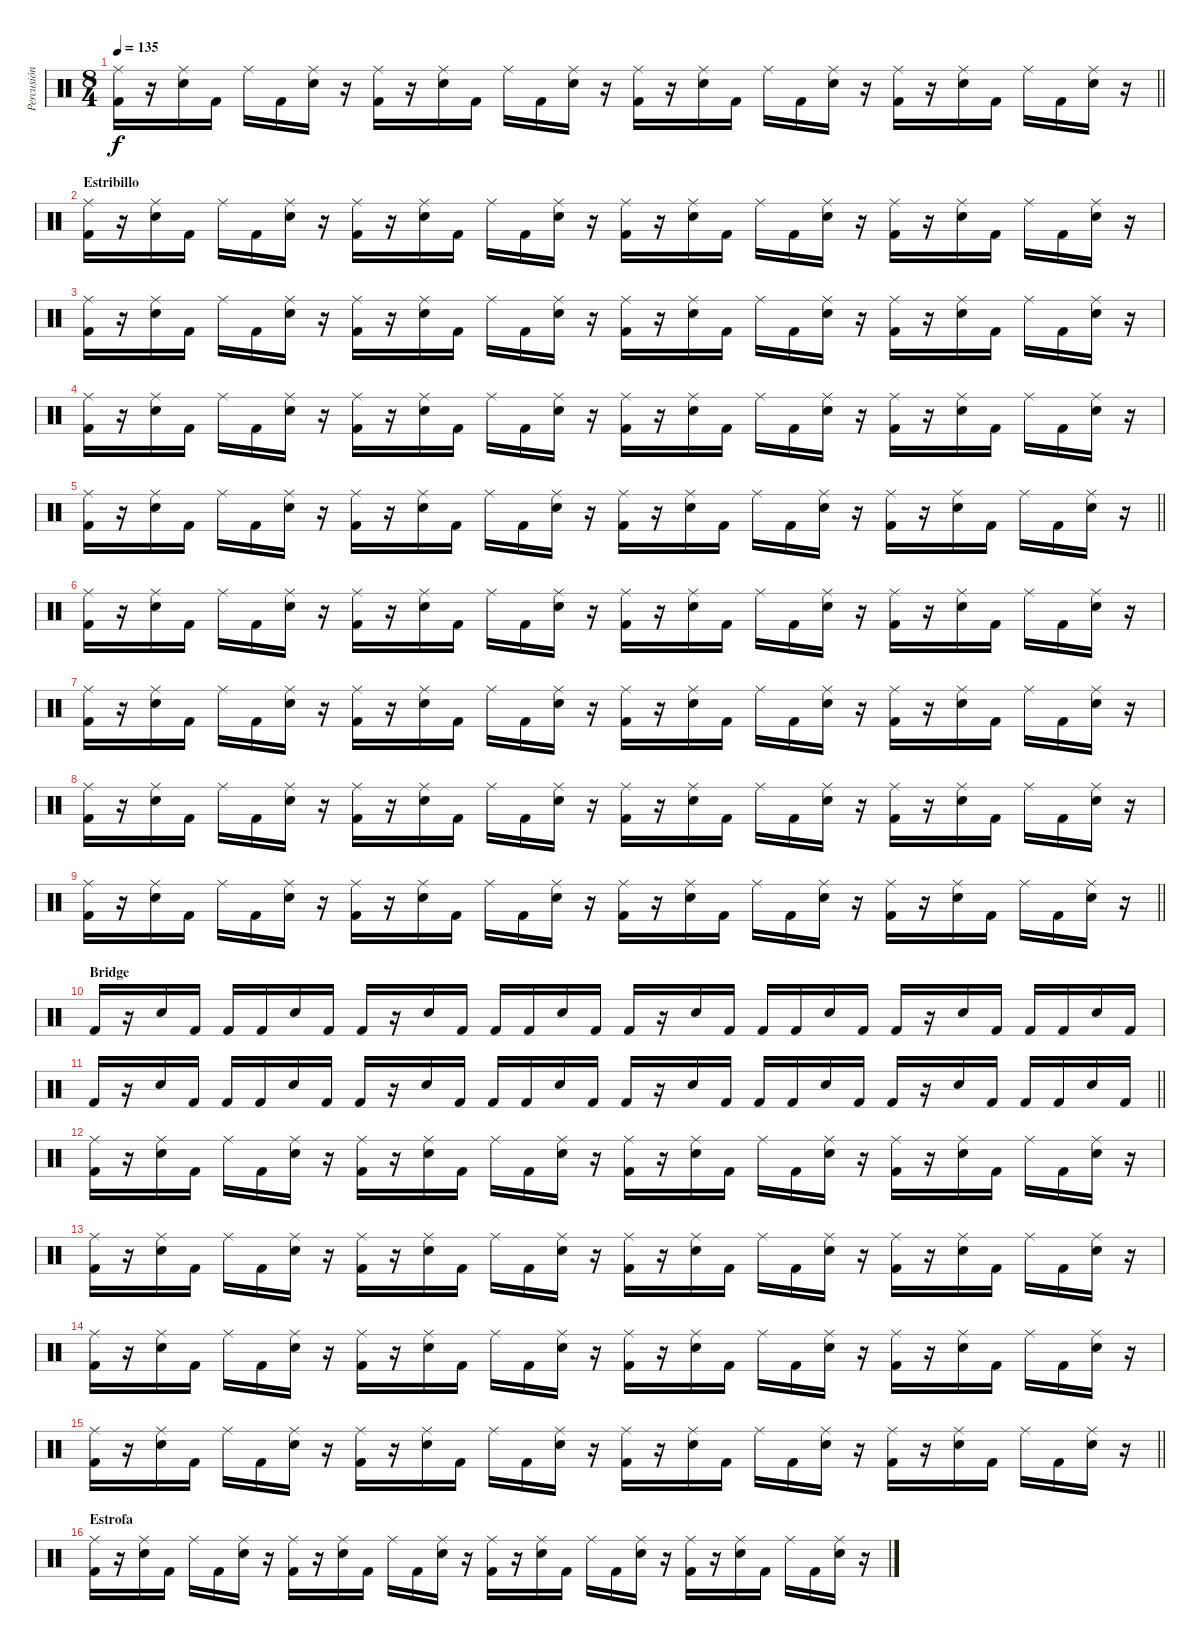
\track ("Percusión" "Percusión") {instrument percussion}
\staff {score}
\articulation defaults
\ts (8 4)
\tempo 135
\clef neutral
\barLineRight lightlight
\ks c
("Kick (hit) 2" "Ride (middle)").16{dy f} r.16 ("Snare (hit) 2" "Ride (middle)").16 "Kick (hit) 2".16 "Ride (middle)".16 "Kick (hit) 2".16 ("Snare (hit) 2" "Ride (middle)").16 r.16 ("Kick (hit) 2" "Ride (middle)").16 r.16 ("Snare (hit) 2" "Ride (middle)").16 "Kick (hit) 2".16 "Ride (middle)".16 "Kick (hit) 2".16 ("Snare (hit) 2" "Ride (middle)").16 r.16 ("Kick (hit) 2" "Ride (middle)").16 r.16 ("Snare (hit) 2" "Ride (middle)").16 "Kick (hit) 2".16 "Ride (middle)".16 "Kick (hit) 2".16 ("Snare (hit) 2" "Ride (middle)").16 r.16 ("Kick (hit) 2" "Ride (middle)").16 r.16 ("Snare (hit) 2" "Ride (middle)").16 "Kick (hit) 2".16 "Ride (middle)".16 "Kick (hit) 2".16 ("Snare (hit) 2" "Ride (middle)").16 r.16 |
\section ("" "Estribillo")
("Kick (hit) 2" "Ride (middle)").16 r.16 ("Snare (hit) 2" "Ride (middle)").16 "Kick (hit) 2".16 "Ride (middle)".16 "Kick (hit) 2".16 ("Snare (hit) 2" "Ride (middle)").16 r.16 ("Kick (hit) 2" "Ride (middle)").16 r.16 ("Snare (hit) 2" "Ride (middle)").16 "Kick (hit) 2".16 "Ride (middle)".16 "Kick (hit) 2".16 ("Snare (hit) 2" "Ride (middle)").16 r.16 ("Kick (hit) 2" "Ride (middle)").16 r.16 ("Snare (hit) 2" "Ride (middle)").16 "Kick (hit) 2".16 "Ride (middle)".16 "Kick (hit) 2".16 ("Snare (hit) 2" "Ride (middle)").16 r.16 ("Kick (hit) 2" "Ride (middle)").16 r.16 ("Snare (hit) 2" "Ride (middle)").16 "Kick (hit) 2".16 "Ride (middle)".16 "Kick (hit) 2".16 ("Snare (hit) 2" "Ride (middle)").16 r.16 |
("Kick (hit) 2" "Ride (middle)").16 r.16 ("Snare (hit) 2" "Ride (middle)").16 "Kick (hit) 2".16 "Ride (middle)".16 "Kick (hit) 2".16 ("Snare (hit) 2" "Ride (middle)").16 r.16 ("Kick (hit) 2" "Ride (middle)").16 r.16 ("Snare (hit) 2" "Ride (middle)").16 "Kick (hit) 2".16 "Ride (middle)".16 "Kick (hit) 2".16 ("Snare (hit) 2" "Ride (middle)").16 r.16 ("Kick (hit) 2" "Ride (middle)").16 r.16 ("Snare (hit) 2" "Ride (middle)").16 "Kick (hit) 2".16 "Ride (middle)".16 "Kick (hit) 2".16 ("Snare (hit) 2" "Ride (middle)").16 r.16 ("Kick (hit) 2" "Ride (middle)").16 r.16 ("Snare (hit) 2" "Ride (middle)").16 "Kick (hit) 2".16 "Ride (middle)".16 "Kick (hit) 2".16 ("Snare (hit) 2" "Ride (middle)").16 r.16 |
("Kick (hit) 2" "Ride (middle)").16 r.16 ("Snare (hit) 2" "Ride (middle)").16 "Kick (hit) 2".16 "Ride (middle)".16 "Kick (hit) 2".16 ("Snare (hit) 2" "Ride (middle)").16 r.16 ("Kick (hit) 2" "Ride (middle)").16 r.16 ("Snare (hit) 2" "Ride (middle)").16 "Kick (hit) 2".16 "Ride (middle)".16 "Kick (hit) 2".16 ("Snare (hit) 2" "Ride (middle)").16 r.16 ("Kick (hit) 2" "Ride (middle)").16 r.16 ("Snare (hit) 2" "Ride (middle)").16 "Kick (hit) 2".16 "Ride (middle)".16 "Kick (hit) 2".16 ("Snare (hit) 2" "Ride (middle)").16 r.16 ("Kick (hit) 2" "Ride (middle)").16 r.16 ("Snare (hit) 2" "Ride (middle)").16 "Kick (hit) 2".16 "Ride (middle)".16 "Kick (hit) 2".16 ("Snare (hit) 2" "Ride (middle)").16 r.16 |
\barLineRight lightlight
("Kick (hit) 2" "Ride (middle)").16 r.16 ("Snare (hit) 2" "Ride (middle)").16 "Kick (hit) 2".16 "Ride (middle)".16 "Kick (hit) 2".16 ("Snare (hit) 2" "Ride (middle)").16 r.16 ("Kick (hit) 2" "Ride (middle)").16 r.16 ("Snare (hit) 2" "Ride (middle)").16 "Kick (hit) 2".16 "Ride (middle)".16 "Kick (hit) 2".16 ("Snare (hit) 2" "Ride (middle)").16 r.16 ("Kick (hit) 2" "Ride (middle)").16 r.16 ("Snare (hit) 2" "Ride (middle)").16 "Kick (hit) 2".16 "Ride (middle)".16 "Kick (hit) 2".16 ("Snare (hit) 2" "Ride (middle)").16 r.16 ("Kick (hit) 2" "Ride (middle)").16 r.16 ("Snare (hit) 2" "Ride (middle)").16 "Kick (hit) 2".16 "Ride (middle)".16 "Kick (hit) 2".16 ("Snare (hit) 2" "Ride (middle)").16 r.16 |
\section ("" "")
("Kick (hit) 2" "Ride (middle)").16 r.16 ("Snare (hit) 2" "Ride (middle)").16 "Kick (hit) 2".16 "Ride (middle)".16 "Kick (hit) 2".16 ("Snare (hit) 2" "Ride (middle)").16 r.16 ("Kick (hit) 2" "Ride (middle)").16 r.16 ("Snare (hit) 2" "Ride (middle)").16 "Kick (hit) 2".16 "Ride (middle)".16 "Kick (hit) 2".16 ("Snare (hit) 2" "Ride (middle)").16 r.16 ("Kick (hit) 2" "Ride (middle)").16 r.16 ("Snare (hit) 2" "Ride (middle)").16 "Kick (hit) 2".16 "Ride (middle)".16 "Kick (hit) 2".16 ("Snare (hit) 2" "Ride (middle)").16 r.16 ("Kick (hit) 2" "Ride (middle)").16 r.16 ("Snare (hit) 2" "Ride (middle)").16 "Kick (hit) 2".16 "Ride (middle)".16 "Kick (hit) 2".16 ("Snare (hit) 2" "Ride (middle)").16 r.16 |
("Kick (hit) 2" "Ride (middle)").16 r.16 ("Snare (hit) 2" "Ride (middle)").16 "Kick (hit) 2".16 "Ride (middle)".16 "Kick (hit) 2".16 ("Snare (hit) 2" "Ride (middle)").16 r.16 ("Kick (hit) 2" "Ride (middle)").16 r.16 ("Snare (hit) 2" "Ride (middle)").16 "Kick (hit) 2".16 "Ride (middle)".16 "Kick (hit) 2".16 ("Snare (hit) 2" "Ride (middle)").16 r.16 ("Kick (hit) 2" "Ride (middle)").16 r.16 ("Snare (hit) 2" "Ride (middle)").16 "Kick (hit) 2".16 "Ride (middle)".16 "Kick (hit) 2".16 ("Snare (hit) 2" "Ride (middle)").16 r.16 ("Kick (hit) 2" "Ride (middle)").16 r.16 ("Snare (hit) 2" "Ride (middle)").16 "Kick (hit) 2".16 "Ride (middle)".16 "Kick (hit) 2".16 ("Snare (hit) 2" "Ride (middle)").16 r.16 |
("Kick (hit) 2" "Ride (middle)").16 r.16 ("Snare (hit) 2" "Ride (middle)").16 "Kick (hit) 2".16 "Ride (middle)".16 "Kick (hit) 2".16 ("Snare (hit) 2" "Ride (middle)").16 r.16 ("Kick (hit) 2" "Ride (middle)").16 r.16 ("Snare (hit) 2" "Ride (middle)").16 "Kick (hit) 2".16 "Ride (middle)".16 "Kick (hit) 2".16 ("Snare (hit) 2" "Ride (middle)").16 r.16 ("Kick (hit) 2" "Ride (middle)").16 r.16 ("Snare (hit) 2" "Ride (middle)").16 "Kick (hit) 2".16 "Ride (middle)".16 "Kick (hit) 2".16 ("Snare (hit) 2" "Ride (middle)").16 r.16 ("Kick (hit) 2" "Ride (middle)").16 r.16 ("Snare (hit) 2" "Ride (middle)").16 "Kick (hit) 2".16 "Ride (middle)".16 "Kick (hit) 2".16 ("Snare (hit) 2" "Ride (middle)").16 r.16 |
\barLineRight lightlight
("Kick (hit) 2" "Ride (middle)").16 r.16 ("Snare (hit) 2" "Ride (middle)").16 "Kick (hit) 2".16 "Ride (middle)".16 "Kick (hit) 2".16 ("Snare (hit) 2" "Ride (middle)").16 r.16 ("Kick (hit) 2" "Ride (middle)").16 r.16 ("Snare (hit) 2" "Ride (middle)").16 "Kick (hit) 2".16 "Ride (middle)".16 "Kick (hit) 2".16 ("Snare (hit) 2" "Ride (middle)").16 r.16 ("Kick (hit) 2" "Ride (middle)").16 r.16 ("Snare (hit) 2" "Ride (middle)").16 "Kick (hit) 2".16 "Ride (middle)".16 "Kick (hit) 2".16 ("Snare (hit) 2" "Ride (middle)").16 r.16 ("Kick (hit) 2" "Ride (middle)").16 r.16 ("Snare (hit) 2" "Ride (middle)").16 "Kick (hit) 2".16 "Ride (middle)".16 "Kick (hit) 2".16 ("Snare (hit) 2" "Ride (middle)").16 r.16 |
\section ("" "Bridge")
"Kick (hit) 2".16 r.16 "Snare (hit) 2".16 "Kick (hit) 2".16 "Kick (hit) 2".16 "Kick (hit) 2".16 "Snare (hit) 2".16 "Kick (hit) 2".16 "Kick (hit) 2".16 r.16 "Snare (hit) 2".16 "Kick (hit) 2".16 "Kick (hit) 2".16 "Kick (hit) 2".16 "Snare (hit) 2".16 "Kick (hit) 2".16 "Kick (hit) 2".16 r.16 "Snare (hit) 2".16 "Kick (hit) 2".16 "Kick (hit) 2".16 "Kick (hit) 2".16 "Snare (hit) 2".16 "Kick (hit) 2".16 "Kick (hit) 2".16 r.16 "Snare (hit) 2".16 "Kick (hit) 2".16 "Kick (hit) 2".16 "Kick (hit) 2".16 "Snare (hit) 2".16 "Kick (hit) 2".16 |
\barLineRight lightlight "Kick (hit) 2".16
r.16 "Snare (hit) 2".16 "Kick (hit) 2".16 "Kick (hit) 2".16 "Kick (hit) 2".16 "Snare (hit) 2".16 "Kick (hit) 2".16 "Kick (hit) 2".16 r.16 "Snare (hit) 2".16 "Kick (hit) 2".16 "Kick (hit) 2".16 "Kick (hit) 2".16 "Snare (hit) 2".16 "Kick (hit) 2".16 "Kick (hit) 2".16 r.16 "Snare (hit) 2".16 "Kick (hit) 2".16 "Kick (hit) 2".16 "Kick (hit) 2".16 "Snare (hit) 2".16 "Kick (hit) 2".16 "Kick (hit) 2".16 r.16 "Snare (hit) 2".16 "Kick (hit) 2".16 "Kick (hit) 2".16 "Kick (hit) 2".16 "Snare (hit) 2".16 "Kick (hit) 2".16 |
("Kick (hit) 2" "Ride (middle)").16 r.16 ("Snare (hit) 2" "Ride (middle)").16 "Kick (hit) 2".16 "Ride (middle)".16 "Kick (hit) 2".16 ("Snare (hit) 2" "Ride (middle)").16 r.16 ("Kick (hit) 2" "Ride (middle)").16 r.16 ("Snare (hit) 2" "Ride (middle)").16 "Kick (hit) 2".16 "Ride (middle)".16 "Kick (hit) 2".16 ("Snare (hit) 2" "Ride (middle)").16 r.16 ("Kick (hit) 2" "Ride (middle)").16 r.16 ("Snare (hit) 2" "Ride (middle)").16 "Kick (hit) 2".16 "Ride (middle)".16 "Kick (hit) 2".16 ("Snare (hit) 2" "Ride (middle)").16 r.16 ("Kick (hit) 2" "Ride (middle)").16 r.16 ("Snare (hit) 2" "Ride (middle)").16 "Kick (hit) 2".16 "Ride (middle)".16 "Kick (hit) 2".16 ("Snare (hit) 2" "Ride (middle)").16 r.16 |
("Kick (hit) 2" "Ride (middle)").16 r.16 ("Snare (hit) 2" "Ride (middle)").16 "Kick (hit) 2".16 "Ride (middle)".16 "Kick (hit) 2".16 ("Snare (hit) 2" "Ride (middle)").16 r.16 ("Kick (hit) 2" "Ride (middle)").16 r.16 ("Snare (hit) 2" "Ride (middle)").16 "Kick (hit) 2".16 "Ride (middle)".16 "Kick (hit) 2".16 ("Snare (hit) 2" "Ride (middle)").16 r.16 ("Kick (hit) 2" "Ride (middle)").16 r.16 ("Snare (hit) 2" "Ride (middle)").16 "Kick (hit) 2".16 "Ride (middle)".16 "Kick (hit) 2".16 ("Snare (hit) 2" "Ride (middle)").16 r.16 ("Kick (hit) 2" "Ride (middle)").16 r.16 ("Snare (hit) 2" "Ride (middle)").16 "Kick (hit) 2".16 "Ride (middle)".16 "Kick (hit) 2".16 ("Snare (hit) 2" "Ride (middle)").16 r.16 |
("Kick (hit) 2" "Ride (middle)").16 r.16 ("Snare (hit) 2" "Ride (middle)").16 "Kick (hit) 2".16 "Ride (middle)".16 "Kick (hit) 2".16 ("Snare (hit) 2" "Ride (middle)").16 r.16 ("Kick (hit) 2" "Ride (middle)").16 r.16 ("Snare (hit) 2" "Ride (middle)").16 "Kick (hit) 2".16 "Ride (middle)".16 "Kick (hit) 2".16 ("Snare (hit) 2" "Ride (middle)").16 r.16 ("Kick (hit) 2" "Ride (middle)").16 r.16 ("Snare (hit) 2" "Ride (middle)").16 "Kick (hit) 2".16 "Ride (middle)".16 "Kick (hit) 2".16 ("Snare (hit) 2" "Ride (middle)").16 r.16 ("Kick (hit) 2" "Ride (middle)").16 r.16 ("Snare (hit) 2" "Ride (middle)").16 "Kick (hit) 2".16 "Ride (middle)".16 "Kick (hit) 2".16 ("Snare (hit) 2" "Ride (middle)").16 r.16 |
\barLineRight lightlight
("Kick (hit) 2" "Ride (middle)").16 r.16 ("Snare (hit) 2" "Ride (middle)").16 "Kick (hit) 2".16 "Ride (middle)".16 "Kick (hit) 2".16 ("Snare (hit) 2" "Ride (middle)").16 r.16 ("Kick (hit) 2" "Ride (middle)").16 r.16 ("Snare (hit) 2" "Ride (middle)").16 "Kick (hit) 2".16 "Ride (middle)".16 "Kick (hit) 2".16 ("Snare (hit) 2" "Ride (middle)").16 r.16 ("Kick (hit) 2" "Ride (middle)").16 r.16 ("Snare (hit) 2" "Ride (middle)").16 "Kick (hit) 2".16 "Ride (middle)".16 "Kick (hit) 2".16 ("Snare (hit) 2" "Ride (middle)").16 r.16 ("Kick (hit) 2" "Ride (middle)").16 r.16 ("Snare (hit) 2" "Ride (middle)").16 "Kick (hit) 2".16 "Ride (middle)".16 "Kick (hit) 2".16 ("Snare (hit) 2" "Ride (middle)").16 r.16 |
\section ("" "Estrofa")
("Kick (hit) 2" "Ride (middle)").16 r.16 ("Snare (hit) 2" "Ride (middle)").16 "Kick (hit) 2".16 "Ride (middle)".16 "Kick (hit) 2".16 ("Snare (hit) 2" "Ride (middle)").16 r.16 ("Kick (hit) 2" "Ride (middle)").16 r.16 ("Snare (hit) 2" "Ride (middle)").16 "Kick (hit) 2".16 "Ride (middle)".16 "Kick (hit) 2".16 ("Snare (hit) 2" "Ride (middle)").16 r.16 ("Kick (hit) 2" "Ride (middle)").16 r.16 ("Snare (hit) 2" "Ride (middle)").16 "Kick (hit) 2".16 "Ride (middle)".16 "Kick (hit) 2".16 ("Snare (hit) 2" "Ride (middle)").16 r.16 ("Kick (hit) 2" "Ride (middle)").16 r.16 ("Snare (hit) 2" "Ride (middle)").16 "Kick (hit) 2".16 "Ride (middle)".16 "Kick (hit) 2".16 ("Snare (hit) 2" "Ride (middle)").16 r.16
